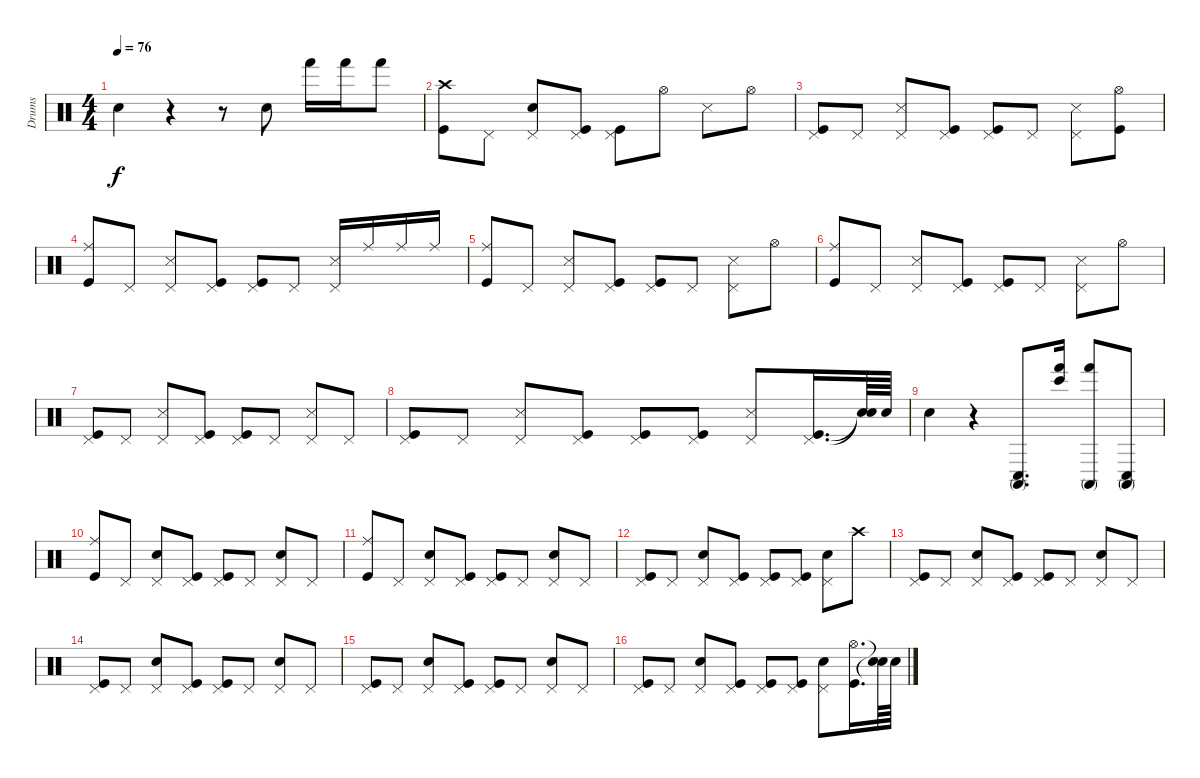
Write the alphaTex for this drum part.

\track ("Drums" "Drums") {instrument percussion}
\staff {score}
\articulation defaults
\ts (4 4)
\tempo 76
\clef neutral
\ks c "Electric Snare (hit)".4{dy f}
r.4 r.8 "Electric Snare (hit)".8 "Hand (hit)".16 "Hand (hit)".16 "Hand (hit)".8 |
("Kick (hit)" "Crash high (hit)").8 "Pedal Hi-Hat (hit)".8 ("Electric Snare (hit)" "Pedal Hi-Hat (hit)").8 ("Kick (hit)" "Pedal Hi-Hat (hit)").8 ("Kick (hit)" "Pedal Hi-Hat (hit)").8 "Hi-Hat (open)".8 "Snare (side stick) 3".8 "Hi-Hat (open)".8 |
("Kick (hit)" "Pedal Hi-Hat (hit)").8 "Pedal Hi-Hat (hit)".8 ("Pedal Hi-Hat (hit)" "Snare (side stick) 3").8 ("Kick (hit)" "Pedal Hi-Hat (hit)").8 ("Kick (hit)" "Pedal Hi-Hat (hit)").8 "Pedal Hi-Hat (hit)".8 ("Pedal Hi-Hat (hit)" "Snare (side stick) 3").8 ("Kick (hit)" "Hi-Hat (open)").8 |
("Kick (hit)" "Ride (middle)").8 "Pedal Hi-Hat (hit)".8 ("Snare (side stick) 3" "Pedal Hi-Hat (hit)").8 ("Kick (hit)" "Pedal Hi-Hat (hit)").8 ("Kick (hit)" "Pedal Hi-Hat (hit)").8 "Pedal Hi-Hat (hit)".8 ("Snare (side stick) 3" "Pedal Hi-Hat (hit)").16 "Ride (middle)".16 "Ride (middle)".16 "Ride (middle)".16 |
("Kick (hit)" "Ride (middle)").8 "Pedal Hi-Hat (hit)".8 ("Pedal Hi-Hat (hit)" "Snare (side stick) 3").8 ("Pedal Hi-Hat (hit)" "Kick (hit)").8 ("Pedal Hi-Hat (hit)" "Kick (hit)").8 "Pedal Hi-Hat (hit)".8 ("Pedal Hi-Hat (hit)" "Snare (side stick) 3").8 "Hi-Hat (open)".8 |
("Ride (middle)" "Kick (hit)").8 "Pedal Hi-Hat (hit)".8 ("Pedal Hi-Hat (hit)" "Snare (side stick) 3").8 ("Pedal Hi-Hat (hit)" "Kick (hit)").8 ("Pedal Hi-Hat (hit)" "Kick (hit)").8 "Pedal Hi-Hat (hit)".8 ("Pedal Hi-Hat (hit)" "Snare (side stick) 3").8 "Hi-Hat (open)".8 |
("Kick (hit)" "Pedal Hi-Hat (hit)").8 "Pedal Hi-Hat (hit)".8 ("Pedal Hi-Hat (hit)" "Snare (side stick) 3").8 ("Pedal Hi-Hat (hit)" "Kick (hit)").8 ("Pedal Hi-Hat (hit)" "Kick (hit)").8 "Pedal Hi-Hat (hit)".8 ("Pedal Hi-Hat (hit)" "Snare (side stick) 3").8 "Pedal Hi-Hat (hit)".8 |
("Pedal Hi-Hat (hit)" "Kick (hit)").8 "Pedal Hi-Hat (hit)".8 ("Pedal Hi-Hat (hit)" "Snare (side stick) 3").8 ("Pedal Hi-Hat (hit)" "Kick (hit)").8 ("Pedal Hi-Hat (hit)" "Kick (hit)").8 ("Pedal Hi-Hat (hit)" "Kick (hit)").8 ("Pedal Hi-Hat (hit)" "Snare (side stick) 3").8 ("Pedal Hi-Hat (hit)" "Kick (hit)").16{d} ("Snare (hit)"{t} "Snare (hit)"{t}).64 "Electric Snare (hit)".64 |
"Electric Snare (hit)".4 r.4 ("Conga high (mute)" "Conga low (hit)").8{d} ("Hand (hit)" "Bongo High (hit)").16 ("Conga high (mute)" "Hand (hit)").8 ("Conga high (mute)" "Conga low (hit)").8 |
("Ride (middle)" "Kick (hit)").8 "Pedal Hi-Hat (hit)".8 ("Pedal Hi-Hat (hit)" "Electric Snare (hit)").8 ("Pedal Hi-Hat (hit)" "Kick (hit)").8 ("Pedal Hi-Hat (hit)" "Kick (hit)").8 "Pedal Hi-Hat (hit)".8 ("Pedal Hi-Hat (hit)" "Electric Snare (hit)").8 "Pedal Hi-Hat (hit)".8 |
("Kick (hit)" "Ride (middle)").8 "Pedal Hi-Hat (hit)".8 ("Pedal Hi-Hat (hit)" "Electric Snare (hit)").8 ("Pedal Hi-Hat (hit)" "Kick (hit)").8 ("Pedal Hi-Hat (hit)" "Kick (hit)").8 "Pedal Hi-Hat (hit)".8 ("Pedal Hi-Hat (hit)" "Electric Snare (hit)").8 "Pedal Hi-Hat (hit)".8 |
("Kick (hit)" "Pedal Hi-Hat (hit)").8 "Pedal Hi-Hat (hit)".8 ("Pedal Hi-Hat (hit)" "Electric Snare (hit)").8 ("Pedal Hi-Hat (hit)" "Kick (hit)").8 ("Pedal Hi-Hat (hit)" "Kick (hit)").8 ("Pedal Hi-Hat (hit)" "Kick (hit)").8 ("Pedal Hi-Hat (hit)" "Electric Snare (hit)").8 "Crash high (hit)".8 |
("Kick (hit)" "Pedal Hi-Hat (hit)").8 "Pedal Hi-Hat (hit)".8 ("Pedal Hi-Hat (hit)" "Electric Snare (hit)").8 ("Pedal Hi-Hat (hit)" "Kick (hit)").8 ("Pedal Hi-Hat (hit)" "Kick (hit)").8 "Pedal Hi-Hat (hit)".8 ("Pedal Hi-Hat (hit)" "Electric Snare (hit)").8 "Pedal Hi-Hat (hit)".8 |
("Pedal Hi-Hat (hit)" "Kick (hit)").8 "Pedal Hi-Hat (hit)".8 ("Pedal Hi-Hat (hit)" "Electric Snare (hit)").8 ("Pedal Hi-Hat (hit)" "Kick (hit)").8 ("Pedal Hi-Hat (hit)" "Kick (hit)").8 "Pedal Hi-Hat (hit)".8 ("Pedal Hi-Hat (hit)" "Electric Snare (hit)").8 "Pedal Hi-Hat (hit)".8 |
("Pedal Hi-Hat (hit)" "Kick (hit)").8 "Pedal Hi-Hat (hit)".8 ("Pedal Hi-Hat (hit)" "Electric Snare (hit)").8 ("Pedal Hi-Hat (hit)" "Kick (hit)").8 ("Pedal Hi-Hat (hit)" "Kick (hit)").8 "Pedal Hi-Hat (hit)".8 ("Pedal Hi-Hat (hit)" "Electric Snare (hit)").8 "Pedal Hi-Hat (hit)".8 |
("Pedal Hi-Hat (hit)" "Kick (hit)").8 "Pedal Hi-Hat (hit)".8 ("Pedal Hi-Hat (hit)" "Electric Snare (hit)").8 ("Pedal Hi-Hat (hit)" "Kick (hit)").8 ("Pedal Hi-Hat (hit)" "Kick (hit)").8 ("Pedal Hi-Hat (hit)" "Kick (hit)").8 ("Pedal Hi-Hat (hit)" "Electric Snare (hit)").8 ("Kick (hit)" "Hi-Hat (open)").16{d} ("Snare (hit)"{t} "Snare (hit)"{t}).64 "Electric Snare (hit)".64
